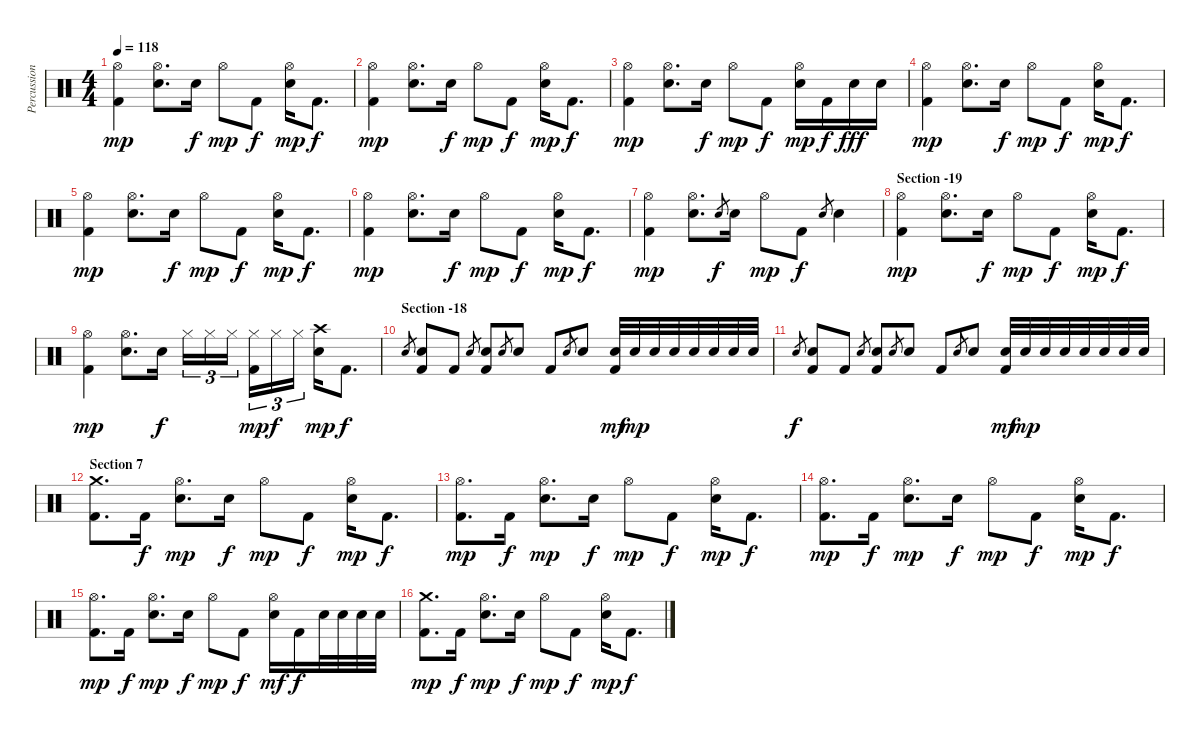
\track ("Percussions" "Percussion") {instrument percussion}
\staff {score}
\articulation defaults
\ts (4 4)
\tempo 118
\clef neutral
\ks c
("Hi-Hat (open)" "Kick (hit) 2").4{dy mp} ("Hi-Hat (open)" "Snare (hit) 2").8{d} "Snare (hit) 2".16{dy f} "Hi-Hat (open)".8{dy mp} "Kick (hit) 2".8{dy f} ("Hi-Hat (open)" "Snare (hit) 2").16{dy mp} "Kick (hit) 2".8{d dy f} |
("Hi-Hat (open)" "Kick (hit) 2").4{dy mp} ("Hi-Hat (open)" "Snare (hit) 2").8{d} "Snare (hit) 2".16{dy f} "Hi-Hat (open)".8{dy mp} "Kick (hit) 2".8{dy f} ("Hi-Hat (open)" "Snare (hit) 2").16{dy mp} "Kick (hit) 2".8{d dy f} |
("Hi-Hat (open)" "Kick (hit) 2").4{dy mp} ("Hi-Hat (open)" "Snare (hit) 2").8{d} "Snare (hit) 2".16{dy f} "Hi-Hat (open)".8{dy mp} "Kick (hit) 2".8{dy f} ("Hi-Hat (open)" "Snare (hit) 2").16{dy mp} "Kick (hit) 2".16{dy f} "Snare (hit) 2".16{dy fff} "Snare (hit) 2".16 |
("Hi-Hat (open)" "Kick (hit) 2").4{dy mp} ("Hi-Hat (open)" "Snare (hit) 2").8{d} "Snare (hit) 2".16{dy f} "Hi-Hat (open)".8{dy mp} "Kick (hit) 2".8{dy f} ("Hi-Hat (open)" "Snare (hit) 2").16{dy mp} "Kick (hit) 2".8{d dy f} |
("Hi-Hat (open)" "Kick (hit) 2").4{dy mp} ("Hi-Hat (open)" "Snare (hit) 2").8{d} "Snare (hit) 2".16{dy f} "Hi-Hat (open)".8{dy mp} "Kick (hit) 2".8{dy f} ("Hi-Hat (open)" "Snare (hit) 2").16{dy mp} "Kick (hit) 2".8{d dy f} |
("Hi-Hat (open)" "Kick (hit) 2").4{dy mp} ("Hi-Hat (open)" "Snare (hit) 2").8{d} "Snare (hit) 2".16{dy f} "Hi-Hat (open)".8{dy mp} "Kick (hit) 2".8{dy f} ("Hi-Hat (open)" "Snare (hit) 2").16{dy mp} "Kick (hit) 2".8{d dy f} |
("Hi-Hat (open)" "Kick (hit) 2").4{dy mp} ("Hi-Hat (open)" "Snare (hit) 2").8{d} "Snare (hit) 2".8{gr dy f} "Snare (hit) 2".16 "Hi-Hat (open)".8{dy mp} "Kick (hit) 2".8{dy f} "Snare (hit) 2".8{gr} "Snare (hit) 2".4 |
\section ("" "Section -19")
("Hi-Hat (open)" "Kick (hit) 2").4{dy mp} ("Hi-Hat (open)" "Snare (hit) 2").8{d} "Snare (hit) 2".16{dy f} "Hi-Hat (open)".8{dy mp} "Kick (hit) 2".8{dy f} ("Hi-Hat (open)" "Snare (hit) 2").16{dy mp} "Kick (hit) 2".8{d dy f} |
("Hi-Hat (open)" "Kick (hit) 2").4{dy mp} ("Hi-Hat (open)" "Snare (hit) 2").8{d} "Snare (hit) 2".16{dy f} "Hi-Hat (closed)".16{tu (3 2)} "Hi-Hat (closed)".16{tu (3 2)} "Hi-Hat (closed)".16{tu (3 2)} ("Hi-Hat (closed)" "Kick (hit) 2").16{tu (3 2) dy mp} "Hi-Hat (closed)".16{tu (3 2) dy f} "Hi-Hat (closed)".16{tu (3 2)} ("Crash high (hit)" "Snare (hit) 2").16{dy mp} "Kick (hit) 2".8{d dy f} |
\section ("" "Section -18")
"Snare (hit) 2".8{gr} ("Snare (hit) 2" "Kick (hit) 2").8 "Kick (hit) 2".8 "Snare (hit) 2".8{gr} ("Snare (hit) 2" "Kick (hit) 2").8 "Snare (hit) 2".8{gr} "Snare (hit) 2".8 "Kick (hit) 2".8 "Snare (hit) 2".8{gr} "Snare (hit) 2".8 ("Snare (hit) 2" "Kick (hit) 2").32{dy mf} "Snare (hit) 2".32{dy mp} "Snare (hit) 2".32 "Snare (hit) 2".32 "Snare (hit) 2".32 "Snare (hit) 2".32 "Snare (hit) 2".32 "Snare (hit) 2".32 |
"Snare (hit) 2".8{gr dy f} ("Snare (hit) 2" "Kick (hit) 2").8 "Kick (hit) 2".8 "Snare (hit) 2".8{gr} ("Snare (hit) 2" "Kick (hit) 2").8 "Snare (hit) 2".8{gr} "Snare (hit) 2".8 "Kick (hit) 2".8 "Snare (hit) 2".8{gr} "Snare (hit) 2".8 ("Snare (hit) 2" "Kick (hit) 2").32{dy mf} "Snare (hit) 2".32{dy mp} "Snare (hit) 2".32 "Snare (hit) 2".32 "Snare (hit) 2".32 "Snare (hit) 2".32 "Snare (hit) 2".32 "Snare (hit) 2".32 |
\section ("" "Section 7")
("Crash medium (hit)" "Kick (hit) 2").8{d} "Kick (hit) 2".16{dy f} ("Hi-Hat (open)" "Snare (hit) 2").8{d dy mp} "Electric Snare (hit)".16{dy f} "Hi-Hat (open)".8{dy mp} "Kick (hit) 2".8{dy f} ("Hi-Hat (open)" "Snare (hit) 2").16{dy mp} "Kick (hit) 2".8{d dy f} |
("Hi-Hat (open)" "Kick (hit) 2").8{d dy mp} "Kick (hit) 2".16{dy f} ("Hi-Hat (open)" "Snare (hit) 2").8{d dy mp} "Electric Snare (hit)".16{dy f} "Hi-Hat (open)".8{dy mp} "Kick (hit) 2".8{dy f} ("Hi-Hat (open)" "Snare (hit) 2").16{dy mp} "Kick (hit) 2".8{d dy f} |
("Hi-Hat (open)" "Kick (hit) 2").8{d dy mp} "Kick (hit) 2".16{dy f} ("Hi-Hat (open)" "Snare (hit) 2").8{d dy mp} "Electric Snare (hit)".16{dy f} "Hi-Hat (open)".8{dy mp} "Kick (hit) 2".8{dy f} ("Hi-Hat (open)" "Snare (hit) 2").16{dy mp} "Kick (hit) 2".8{d dy f} |
("Hi-Hat (open)" "Kick (hit) 2").8{d dy mp} "Kick (hit) 2".16{dy f} ("Hi-Hat (open)" "Snare (hit) 2").8{d dy mp} "Electric Snare (hit)".16{dy f} "Hi-Hat (open)".8{dy mp} "Kick (hit) 2".8{dy f} ("Hi-Hat (open)" "Snare (hit) 2").16{dy mf} "Kick (hit) 2".16{dy f} "Snare (hit) 2".32 "Snare (hit) 2".32 "Snare (hit) 2".32 "Snare (hit) 2".32 |
("Crash medium (hit)" "Kick (hit) 2").8{d dy mp} "Kick (hit) 2".16{dy f} ("Hi-Hat (open)" "Snare (hit) 2").8{d dy mp} "Electric Snare (hit)".16{dy f} "Hi-Hat (open)".8{dy mp} "Kick (hit) 2".8{dy f} ("Hi-Hat (open)" "Snare (hit) 2").16{dy mp} "Kick (hit) 2".8{d dy f}
